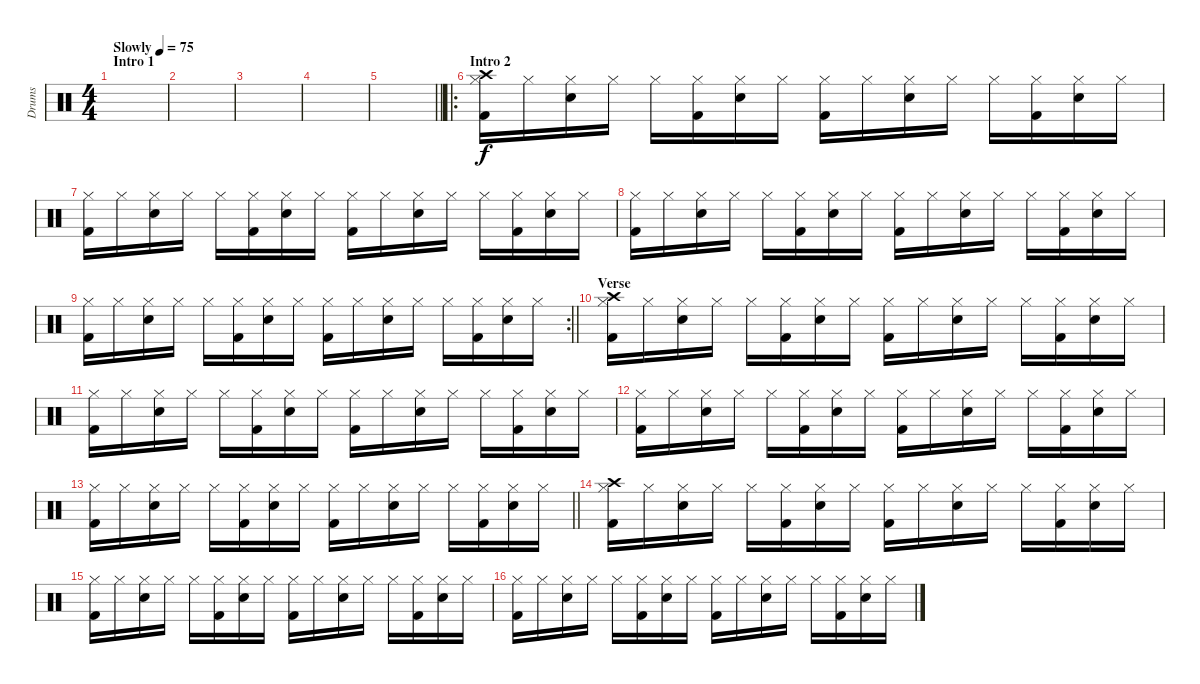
\track ("Drums" "Drums") {instrument percussion}
\staff {score}
\articulation defaults
\ts (4 4)
\section ("" "Intro 1")
\tempo (75 "Slowly")
\clef neutral
\ks c
|
|
|
|
\barLineRight lightlight
|
\ro
\section ("" "Intro 2")
("Hi-Hat (closed)" "Kick (hit) 2" "Crash high (hit)").16 "Hi-Hat (closed)".16 ("Hi-Hat (closed)" "Snare (hit) 2").16 "Hi-Hat (closed)".16 "Hi-Hat (closed)".16 ("Hi-Hat (closed)" "Kick (hit) 2").16 ("Hi-Hat (closed)" "Snare (hit) 2").16 "Hi-Hat (closed)".16 ("Hi-Hat (closed)" "Kick (hit) 2").16 "Hi-Hat (closed)".16 ("Hi-Hat (closed)" "Snare (hit) 2").16 "Hi-Hat (closed)".16 "Hi-Hat (closed)".16 ("Hi-Hat (closed)" "Kick (hit) 2").16 ("Hi-Hat (closed)" "Snare (hit) 2").16 "Hi-Hat (closed)".16 |
("Hi-Hat (closed)" "Kick (hit) 2").16 "Hi-Hat (closed)".16 ("Hi-Hat (closed)" "Snare (hit) 2").16 "Hi-Hat (closed)".16 "Hi-Hat (closed)".16 ("Hi-Hat (closed)" "Kick (hit) 2").16 ("Hi-Hat (closed)" "Snare (hit) 2").16 "Hi-Hat (closed)".16 ("Hi-Hat (closed)" "Kick (hit) 2").16 "Hi-Hat (closed)".16 ("Hi-Hat (closed)" "Snare (hit) 2").16 "Hi-Hat (closed)".16 "Hi-Hat (closed)".16 ("Hi-Hat (closed)" "Kick (hit) 2").16 ("Hi-Hat (closed)" "Snare (hit) 2").16 "Hi-Hat (closed)".16 |
("Hi-Hat (closed)" "Kick (hit) 2").16 "Hi-Hat (closed)".16 ("Hi-Hat (closed)" "Snare (hit) 2").16 "Hi-Hat (closed)".16 "Hi-Hat (closed)".16 ("Hi-Hat (closed)" "Kick (hit) 2").16 ("Hi-Hat (closed)" "Snare (hit) 2").16 "Hi-Hat (closed)".16 ("Hi-Hat (closed)" "Kick (hit) 2").16 "Hi-Hat (closed)".16 ("Hi-Hat (closed)" "Snare (hit) 2").16 "Hi-Hat (closed)".16 "Hi-Hat (closed)".16 ("Hi-Hat (closed)" "Kick (hit) 2").16 ("Hi-Hat (closed)" "Snare (hit) 2").16 "Hi-Hat (closed)".16 |
\rc 2
\barLineRight lightlight
("Hi-Hat (closed)" "Kick (hit) 2").16 "Hi-Hat (closed)".16 ("Hi-Hat (closed)" "Snare (hit) 2").16 "Hi-Hat (closed)".16 "Hi-Hat (closed)".16 ("Hi-Hat (closed)" "Kick (hit) 2").16 ("Hi-Hat (closed)" "Snare (hit) 2").16 "Hi-Hat (closed)".16 ("Hi-Hat (closed)" "Kick (hit) 2").16 "Hi-Hat (closed)".16 ("Hi-Hat (closed)" "Snare (hit) 2").16 "Hi-Hat (closed)".16 "Hi-Hat (closed)".16 ("Hi-Hat (closed)" "Kick (hit) 2").16 ("Hi-Hat (closed)" "Snare (hit) 2").16 "Hi-Hat (closed)".16 |
\section ("" "Verse")
("Hi-Hat (closed)" "Kick (hit) 2" "Crash high (hit)").16 "Hi-Hat (closed)".16 ("Hi-Hat (closed)" "Snare (hit) 2").16 "Hi-Hat (closed)".16 "Hi-Hat (closed)".16 ("Hi-Hat (closed)" "Kick (hit) 2").16 ("Hi-Hat (closed)" "Snare (hit) 2").16 "Hi-Hat (closed)".16 ("Hi-Hat (closed)" "Kick (hit) 2").16 "Hi-Hat (closed)".16 ("Hi-Hat (closed)" "Snare (hit) 2").16 "Hi-Hat (closed)".16 "Hi-Hat (closed)".16 ("Hi-Hat (closed)" "Kick (hit) 2").16 ("Hi-Hat (closed)" "Snare (hit) 2").16 "Hi-Hat (closed)".16 |
("Hi-Hat (closed)" "Kick (hit) 2").16 "Hi-Hat (closed)".16 ("Hi-Hat (closed)" "Snare (hit) 2").16 "Hi-Hat (closed)".16 "Hi-Hat (closed)".16 ("Hi-Hat (closed)" "Kick (hit) 2").16 ("Hi-Hat (closed)" "Snare (hit) 2").16 "Hi-Hat (closed)".16 ("Hi-Hat (closed)" "Kick (hit) 2").16 "Hi-Hat (closed)".16 ("Hi-Hat (closed)" "Snare (hit) 2").16 "Hi-Hat (closed)".16 "Hi-Hat (closed)".16 ("Hi-Hat (closed)" "Kick (hit) 2").16 ("Hi-Hat (closed)" "Snare (hit) 2").16 "Hi-Hat (closed)".16 |
("Hi-Hat (closed)" "Kick (hit) 2").16 "Hi-Hat (closed)".16 ("Hi-Hat (closed)" "Snare (hit) 2").16 "Hi-Hat (closed)".16 "Hi-Hat (closed)".16 ("Hi-Hat (closed)" "Kick (hit) 2").16 ("Hi-Hat (closed)" "Snare (hit) 2").16 "Hi-Hat (closed)".16 ("Hi-Hat (closed)" "Kick (hit) 2").16 "Hi-Hat (closed)".16 ("Hi-Hat (closed)" "Snare (hit) 2").16 "Hi-Hat (closed)".16 "Hi-Hat (closed)".16 ("Hi-Hat (closed)" "Kick (hit) 2").16 ("Hi-Hat (closed)" "Snare (hit) 2").16 "Hi-Hat (closed)".16 |
\barLineRight lightlight
("Hi-Hat (closed)" "Kick (hit) 2").16 "Hi-Hat (closed)".16 ("Hi-Hat (closed)" "Snare (hit) 2").16 "Hi-Hat (closed)".16 "Hi-Hat (closed)".16 ("Hi-Hat (closed)" "Kick (hit) 2").16 ("Hi-Hat (closed)" "Snare (hit) 2").16 "Hi-Hat (closed)".16 ("Hi-Hat (closed)" "Kick (hit) 2").16 "Hi-Hat (closed)".16 ("Hi-Hat (closed)" "Snare (hit) 2").16 "Hi-Hat (closed)".16 "Hi-Hat (closed)".16 ("Hi-Hat (closed)" "Kick (hit) 2").16 ("Hi-Hat (closed)" "Snare (hit) 2").16 "Hi-Hat (closed)".16 |
("Hi-Hat (closed)" "Kick (hit) 2" "Crash high (hit)").16 "Hi-Hat (closed)".16 ("Hi-Hat (closed)" "Snare (hit) 2").16 "Hi-Hat (closed)".16 "Hi-Hat (closed)".16 ("Hi-Hat (closed)" "Kick (hit) 2").16 ("Hi-Hat (closed)" "Snare (hit) 2").16 "Hi-Hat (closed)".16 ("Hi-Hat (closed)" "Kick (hit) 2").16 "Hi-Hat (closed)".16 ("Hi-Hat (closed)" "Snare (hit) 2").16 "Hi-Hat (closed)".16 "Hi-Hat (closed)".16 ("Hi-Hat (closed)" "Kick (hit) 2").16 ("Hi-Hat (closed)" "Snare (hit) 2").16 "Hi-Hat (closed)".16 |
("Hi-Hat (closed)" "Kick (hit) 2").16 "Hi-Hat (closed)".16 ("Hi-Hat (closed)" "Snare (hit) 2").16 "Hi-Hat (closed)".16 "Hi-Hat (closed)".16 ("Hi-Hat (closed)" "Kick (hit) 2").16 ("Hi-Hat (closed)" "Snare (hit) 2").16 "Hi-Hat (closed)".16 ("Hi-Hat (closed)" "Kick (hit) 2").16 "Hi-Hat (closed)".16 ("Hi-Hat (closed)" "Snare (hit) 2").16 "Hi-Hat (closed)".16 "Hi-Hat (closed)".16 ("Hi-Hat (closed)" "Kick (hit) 2").16 ("Hi-Hat (closed)" "Snare (hit) 2").16 "Hi-Hat (closed)".16 |
("Hi-Hat (closed)" "Kick (hit) 2").16 "Hi-Hat (closed)".16 ("Hi-Hat (closed)" "Snare (hit) 2").16 "Hi-Hat (closed)".16 "Hi-Hat (closed)".16 ("Hi-Hat (closed)" "Kick (hit) 2").16 ("Hi-Hat (closed)" "Snare (hit) 2").16 "Hi-Hat (closed)".16 ("Hi-Hat (closed)" "Kick (hit) 2").16 "Hi-Hat (closed)".16 ("Hi-Hat (closed)" "Snare (hit) 2").16 "Hi-Hat (closed)".16 "Hi-Hat (closed)".16 ("Hi-Hat (closed)" "Kick (hit) 2").16 ("Hi-Hat (closed)" "Snare (hit) 2").16 "Hi-Hat (closed)".16
